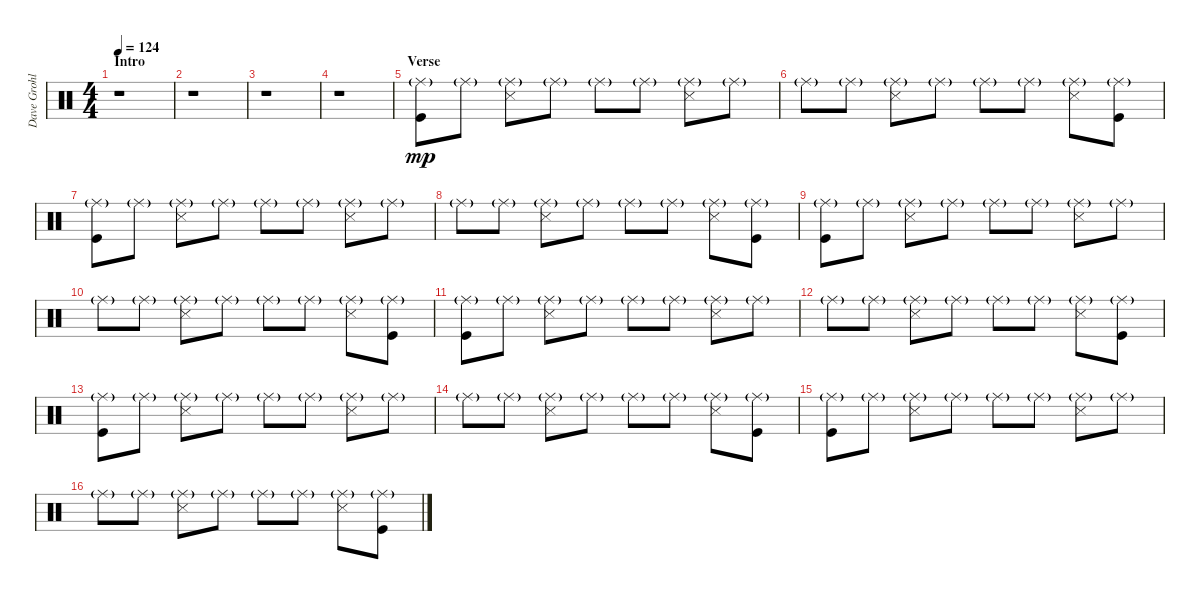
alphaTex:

\track ("Dave Grohl" "Dave Grohl") {instrument percussion}
\staff {score}
\articulation defaults
\ts (4 4)
\section ("" "Intro")
\tempo 124
\clef neutral
\ks c
r.1{dy mp} |
r.1 |
r.1 |
r.1 |
\section ("" "Verse")
("Ride (middle)"{g} "Kick (hit)").8 "Ride (middle)"{g}.8 ("Ride (middle)"{g} "Snare (side stick) 3").8 "Ride (middle)"{g}.8 "Ride (middle)"{g}.8 "Ride (middle)"{g}.8 ("Ride (middle)"{g} "Snare (side stick) 3").8 "Ride (middle)"{g}.8 |
"Ride (middle)"{g}.8 "Ride (middle)"{g}.8 ("Ride (middle)"{g} "Snare (side stick) 3").8 "Ride (middle)"{g}.8 "Ride (middle)"{g}.8 "Ride (middle)"{g}.8 ("Ride (middle)"{g} "Snare (side stick) 3").8 ("Ride (middle)"{g} "Kick (hit)").8 |
("Ride (middle)"{g} "Kick (hit)").8 "Ride (middle)"{g}.8 ("Ride (middle)"{g} "Snare (side stick) 3").8 "Ride (middle)"{g}.8 "Ride (middle)"{g}.8 "Ride (middle)"{g}.8 ("Ride (middle)"{g} "Snare (side stick) 3").8 "Ride (middle)"{g}.8 |
"Ride (middle)"{g}.8 "Ride (middle)"{g}.8 ("Ride (middle)"{g} "Snare (side stick) 3").8 "Ride (middle)"{g}.8 "Ride (middle)"{g}.8 "Ride (middle)"{g}.8 ("Ride (middle)"{g} "Snare (side stick) 3").8 ("Ride (middle)"{g} "Kick (hit)").8 |
("Ride (middle)"{g} "Kick (hit)").8 "Ride (middle)"{g}.8 ("Ride (middle)"{g} "Snare (side stick) 3").8 "Ride (middle)"{g}.8 "Ride (middle)"{g}.8 "Ride (middle)"{g}.8 ("Ride (middle)"{g} "Snare (side stick) 3").8 "Ride (middle)"{g}.8 |
"Ride (middle)"{g}.8 "Ride (middle)"{g}.8 ("Ride (middle)"{g} "Snare (side stick) 3").8 "Ride (middle)"{g}.8 "Ride (middle)"{g}.8 "Ride (middle)"{g}.8 ("Ride (middle)"{g} "Snare (side stick) 3").8 ("Ride (middle)"{g} "Kick (hit)").8 |
("Ride (middle)"{g} "Kick (hit)").8 "Ride (middle)"{g}.8 ("Ride (middle)"{g} "Snare (side stick) 3").8 "Ride (middle)"{g}.8 "Ride (middle)"{g}.8 "Ride (middle)"{g}.8 ("Ride (middle)"{g} "Snare (side stick) 3").8 "Ride (middle)"{g}.8 |
"Ride (middle)"{g}.8 "Ride (middle)"{g}.8 ("Ride (middle)"{g} "Snare (side stick) 3").8 "Ride (middle)"{g}.8 "Ride (middle)"{g}.8 "Ride (middle)"{g}.8 ("Ride (middle)"{g} "Snare (side stick) 3").8 ("Ride (middle)"{g} "Kick (hit)").8 |
("Ride (middle)"{g} "Kick (hit)").8 "Ride (middle)"{g}.8 ("Ride (middle)"{g} "Snare (side stick) 3").8 "Ride (middle)"{g}.8 "Ride (middle)"{g}.8 "Ride (middle)"{g}.8 ("Ride (middle)"{g} "Snare (side stick) 3").8 "Ride (middle)"{g}.8 |
"Ride (middle)"{g}.8 "Ride (middle)"{g}.8 ("Ride (middle)"{g} "Snare (side stick) 3").8 "Ride (middle)"{g}.8 "Ride (middle)"{g}.8 "Ride (middle)"{g}.8 ("Ride (middle)"{g} "Snare (side stick) 3").8 ("Ride (middle)"{g} "Kick (hit)").8 |
("Ride (middle)"{g} "Kick (hit)").8 "Ride (middle)"{g}.8 ("Ride (middle)"{g} "Snare (side stick) 3").8 "Ride (middle)"{g}.8 "Ride (middle)"{g}.8 "Ride (middle)"{g}.8 ("Ride (middle)"{g} "Snare (side stick) 3").8 "Ride (middle)"{g}.8 |
"Ride (middle)"{g}.8 "Ride (middle)"{g}.8 ("Ride (middle)"{g} "Snare (side stick) 3").8 "Ride (middle)"{g}.8 "Ride (middle)"{g}.8 "Ride (middle)"{g}.8 ("Ride (middle)"{g} "Snare (side stick) 3").8 ("Ride (middle)"{g} "Kick (hit)").8
